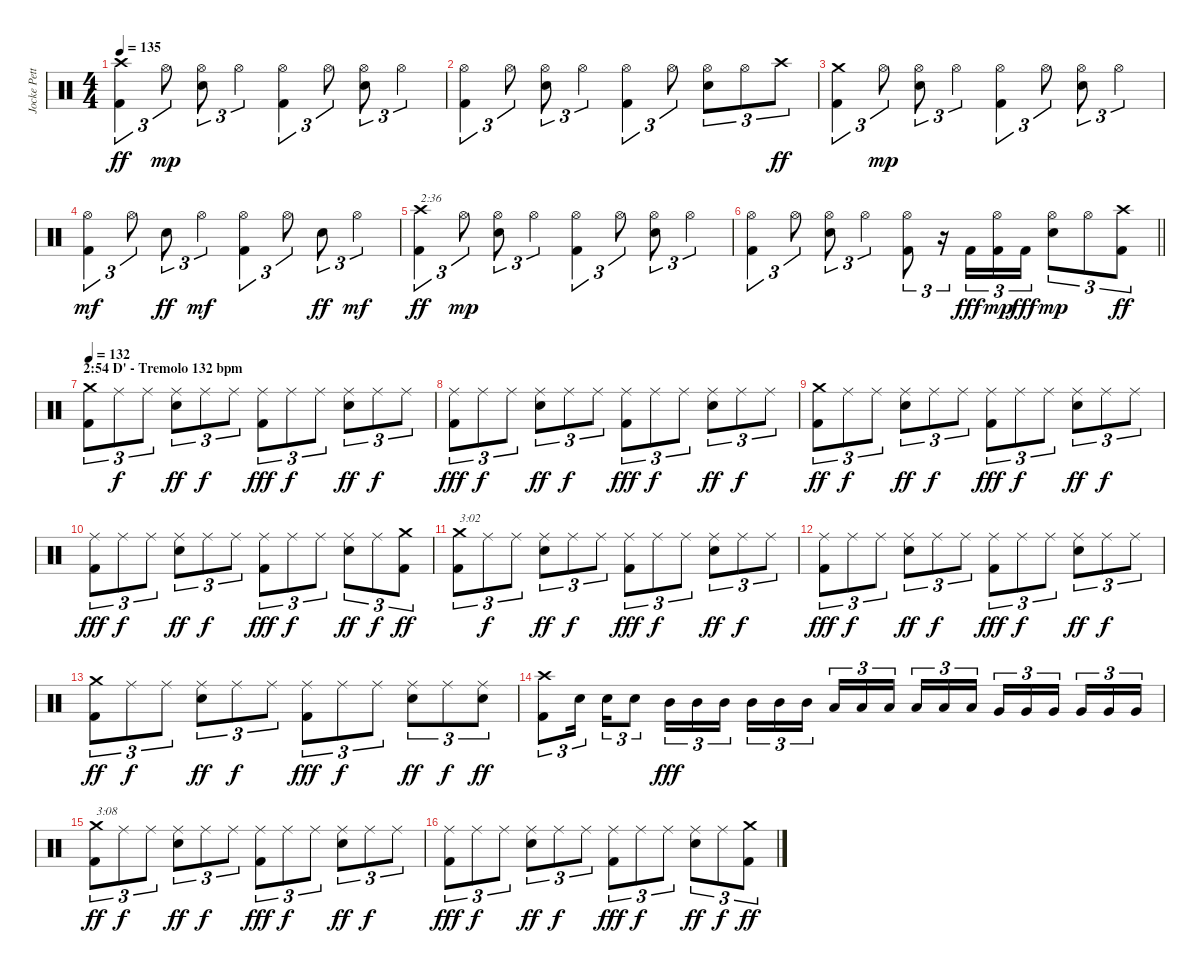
\track ("Jocke Pettersson" "Jocke Pett") {instrument percussion}
\staff {score}
\articulation defaults
\ts (4 4)
\tempo 135
\clef neutral
\ks c
("Kick (hit) 2" "Crash high (hit)").4{tu (3 2) dy ff} "Hi-Hat (open)".8{tu (3 2) dy mp} ("Electric Snare (hit)" "Hi-Hat (open)").8{tu (3 2)} "Hi-Hat (open)".4{tu (3 2)} ("Kick (hit) 2" "Hi-Hat (open)").4{tu (3 2)} "Hi-Hat (open)".8{tu (3 2)} ("Electric Snare (hit)" "Hi-Hat (open)").8{tu (3 2)} "Hi-Hat (open)".4{tu (3 2)} |
("Kick (hit) 2" "Hi-Hat (open)").4{tu (3 2)} "Hi-Hat (open)".8{tu (3 2)} ("Electric Snare (hit)" "Hi-Hat (open)").8{tu (3 2)} "Hi-Hat (open)".4{tu (3 2)} ("Kick (hit) 2" "Hi-Hat (open)").4{tu (3 2)} "Hi-Hat (open)".8{tu (3 2)} ("Electric Snare (hit)" "Hi-Hat (open)").8{tu (3 2)} "Hi-Hat (open)".8{tu (3 2)} "Crash high (hit)".8{tu (3 2) dy ff} |
("Kick (hit) 2" "Crash medium (hit)").4{tu (3 2)} "Hi-Hat (open)".8{tu (3 2) dy mp} ("Electric Snare (hit)" "Hi-Hat (open)").8{tu (3 2)} "Hi-Hat (open)".4{tu (3 2)} ("Kick (hit) 2" "Hi-Hat (open)").4{tu (3 2)} "Hi-Hat (open)".8{tu (3 2)} ("Electric Snare (hit)" "Hi-Hat (open)").8{tu (3 2)} "Hi-Hat (open)".4{tu (3 2)} |
("Kick (hit) 2" "Hi-Hat (open)").4{tu (3 2) dy mf} "Hi-Hat (open)".8{tu (3 2)} "Electric Snare (hit)".8{tu (3 2) dy ff} "Hi-Hat (open)".4{tu (3 2) dy mf} ("Kick (hit) 2" "Hi-Hat (open)").4{tu (3 2)} "Hi-Hat (open)".8{tu (3 2)} "Electric Snare (hit)".8{tu (3 2) dy ff} "Hi-Hat (open)".4{tu (3 2) dy mf} |
("Kick (hit) 2" "Crash high (hit)").4{tu (3 2) txt "2:36" dy ff} "Hi-Hat (open)".8{tu (3 2) dy mp} ("Electric Snare (hit)" "Hi-Hat (open)").8{tu (3 2)} "Hi-Hat (open)".4{tu (3 2)} ("Kick (hit) 2" "Hi-Hat (open)").4{tu (3 2)} "Hi-Hat (open)".8{tu (3 2)} ("Electric Snare (hit)" "Hi-Hat (open)").8{tu (3 2)} "Hi-Hat (open)".4{tu (3 2)} |
\barLineRight lightlight
("Kick (hit) 2" "Hi-Hat (open)").4{tu (3 2)} "Hi-Hat (open)".8{tu (3 2)} ("Electric Snare (hit)" "Hi-Hat (open)").8{tu (3 2)} "Hi-Hat (open)".4{tu (3 2)} ("Kick (hit) 2" "Hi-Hat (open)").8{tu (3 2)} r.16{tu (3 2)} "Kick (hit) 2".16{tu (3 2) dy fff} ("Kick (hit) 2" "Hi-Hat (open)").16{tu (3 2) dy mp} "Kick (hit) 2".16{tu (3 2) dy fff} ("Electric Snare (hit)" "Hi-Hat (open)").8{tu (3 2) dy mp} "Hi-Hat (open)".8{tu (3 2)} ("Kick (hit) 2" "Crash high (hit)").8{tu (3 2) dy ff} |
\section ("" "2:54 D' - Tremolo 132 bpm")
\tempo 132
("Kick (hit) 2" "Crash medium (hit)").8{tu (3 2)} "Ride (middle)".8{tu (3 2) dy f} "Ride (middle)".8{tu (3 2)} ("Electric Snare (hit)" "Ride (middle)").8{tu (3 2) dy ff} "Ride (middle)".8{tu (3 2) dy f} "Ride (middle)".8{tu (3 2)} ("Kick (hit) 2" "Ride (middle)").8{tu (3 2) dy fff} "Ride (middle)".8{tu (3 2) dy f} "Ride (middle)".8{tu (3 2)} ("Electric Snare (hit)" "Ride (middle)").8{tu (3 2) dy ff} "Ride (middle)".8{tu (3 2) dy f} "Ride (middle)".8{tu (3 2)} |
("Kick (hit) 2" "Ride (middle)").8{tu (3 2) dy fff} "Ride (middle)".8{tu (3 2) dy f} "Ride (middle)".8{tu (3 2)} ("Electric Snare (hit)" "Ride (middle)").8{tu (3 2) dy ff} "Ride (middle)".8{tu (3 2) dy f} "Ride (middle)".8{tu (3 2)} ("Kick (hit) 2" "Ride (middle)").8{tu (3 2) dy fff} "Ride (middle)".8{tu (3 2) dy f} "Ride (middle)".8{tu (3 2)} ("Electric Snare (hit)" "Ride (middle)").8{tu (3 2) dy ff} "Ride (middle)".8{tu (3 2) dy f} "Ride (middle)".8{tu (3 2)} |
("Kick (hit) 2" "Crash medium (hit)").8{tu (3 2) dy ff} "Ride (middle)".8{tu (3 2) dy f} "Ride (middle)".8{tu (3 2)} ("Electric Snare (hit)" "Ride (middle)").8{tu (3 2) dy ff} "Ride (middle)".8{tu (3 2) dy f} "Ride (middle)".8{tu (3 2)} ("Kick (hit) 2" "Ride (middle)").8{tu (3 2) dy fff} "Ride (middle)".8{tu (3 2) dy f} "Ride (middle)".8{tu (3 2)} ("Electric Snare (hit)" "Ride (middle)").8{tu (3 2) dy ff} "Ride (middle)".8{tu (3 2) dy f} "Ride (middle)".8{tu (3 2)} |
("Kick (hit) 2" "Ride (middle)").8{tu (3 2) dy fff} "Ride (middle)".8{tu (3 2) dy f} "Ride (middle)".8{tu (3 2)} ("Electric Snare (hit)" "Ride (middle)").8{tu (3 2) dy ff} "Ride (middle)".8{tu (3 2) dy f} "Ride (middle)".8{tu (3 2)} ("Kick (hit) 2" "Ride (middle)").8{tu (3 2) dy fff} "Ride (middle)".8{tu (3 2) dy f} "Ride (middle)".8{tu (3 2)} ("Electric Snare (hit)" "Ride (middle)").8{tu (3 2) dy ff} "Ride (middle)".8{tu (3 2) dy f} ("Kick (hit) 2" "Crash medium (hit)").8{tu (3 2) dy ff} |
("Kick (hit) 2" "Crash medium (hit)").8{tu (3 2) txt "3:02"} "Ride (middle)".8{tu (3 2) dy f} "Ride (middle)".8{tu (3 2)} ("Electric Snare (hit)" "Ride (middle)").8{tu (3 2) dy ff} "Ride (middle)".8{tu (3 2) dy f} "Ride (middle)".8{tu (3 2)} ("Kick (hit) 2" "Ride (middle)").8{tu (3 2) dy fff} "Ride (middle)".8{tu (3 2) dy f} "Ride (middle)".8{tu (3 2)} ("Electric Snare (hit)" "Ride (middle)").8{tu (3 2) dy ff} "Ride (middle)".8{tu (3 2) dy f} "Ride (middle)".8{tu (3 2)} |
("Kick (hit) 2" "Ride (middle)").8{tu (3 2) dy fff} "Ride (middle)".8{tu (3 2) dy f} "Ride (middle)".8{tu (3 2)} ("Electric Snare (hit)" "Ride (middle)").8{tu (3 2) dy ff} "Ride (middle)".8{tu (3 2) dy f} "Ride (middle)".8{tu (3 2)} ("Kick (hit) 2" "Ride (middle)").8{tu (3 2) dy fff} "Ride (middle)".8{tu (3 2) dy f} "Ride (middle)".8{tu (3 2)} ("Electric Snare (hit)" "Ride (middle)").8{tu (3 2) dy ff} "Ride (middle)".8{tu (3 2) dy f} "Ride (middle)".8{tu (3 2)} |
("Kick (hit) 2" "Crash medium (hit)").8{tu (3 2) dy ff} "Ride (middle)".8{tu (3 2) dy f} "Ride (middle)".8{tu (3 2)} ("Electric Snare (hit)" "Ride (middle)").8{tu (3 2) dy ff} "Ride (middle)".8{tu (3 2) dy f} "Ride (middle)".8{tu (3 2)} ("Kick (hit) 2" "Ride (middle)").8{tu (3 2) dy fff} "Ride (middle)".8{tu (3 2) dy f} "Ride (middle)".8{tu (3 2)} ("Electric Snare (hit)" "Ride (middle)").8{tu (3 2) dy ff} "Ride (middle)".8{tu (3 2) dy f} ("Electric Snare (hit)" "Ride (middle)").8{tu (3 2) dy ff} |
("Kick (hit) 2" "Crash high (hit)").8{tu (3 2)} "Electric Snare (hit)".16{tu (3 2) beam splitsecondary} "Electric Snare (hit)".16{tu (3 2)} "Electric Snare (hit)".8{tu (3 2)} "Mid Tom (hit)".16{tu (3 2) dy fff} "Mid Tom (hit)".16{tu (3 2)} "Mid Tom (hit)".16{tu (3 2) beam splitsecondary} "Mid Tom (hit)".16{tu (3 2)} "Mid Tom (hit)".16{tu (3 2)} "Mid Tom (hit)".16{tu (3 2)} "Low Tom (hit)".16{tu (3 2)} "Low Tom (hit)".16{tu (3 2)} "Low Tom (hit)".16{tu (3 2) beam splitsecondary} "Low Tom (hit)".16{tu (3 2)} "Low Tom (hit)".16{tu (3 2)} "Low Tom (hit)".16{tu (3 2)} "Very Low Tom (hit)".16{tu (3 2)} "Very Low Tom (hit)".16{tu (3 2)} "Very Low Tom (hit)".16{tu (3 2) beam splitsecondary} "Very Low Tom (hit)".16{tu (3 2)} "Very Low Tom (hit)".16{tu (3 2)} "Very Low Tom (hit)".16{tu (3 2)} |
("Kick (hit) 2" "Crash medium (hit)").8{tu (3 2) txt "3:08" dy ff} "Ride (middle)".8{tu (3 2) dy f} "Ride (middle)".8{tu (3 2)} ("Electric Snare (hit)" "Ride (middle)").8{tu (3 2) dy ff} "Ride (middle)".8{tu (3 2) dy f} "Ride (middle)".8{tu (3 2)} ("Kick (hit) 2" "Ride (middle)").8{tu (3 2) dy fff} "Ride (middle)".8{tu (3 2) dy f} "Ride (middle)".8{tu (3 2)} ("Electric Snare (hit)" "Ride (middle)").8{tu (3 2) dy ff} "Ride (middle)".8{tu (3 2) dy f} "Ride (middle)".8{tu (3 2)} |
("Kick (hit) 2" "Ride (middle)").8{tu (3 2) dy fff} "Ride (middle)".8{tu (3 2) dy f} "Ride (middle)".8{tu (3 2)} ("Electric Snare (hit)" "Ride (middle)").8{tu (3 2) dy ff} "Ride (middle)".8{tu (3 2) dy f} "Ride (middle)".8{tu (3 2)} ("Kick (hit) 2" "Ride (middle)").8{tu (3 2) dy fff} "Ride (middle)".8{tu (3 2) dy f} "Ride (middle)".8{tu (3 2)} ("Electric Snare (hit)" "Ride (middle)").8{tu (3 2) dy ff} "Ride (middle)".8{tu (3 2) dy f} ("Kick (hit) 2" "Crash medium (hit)").8{tu (3 2) dy ff}
